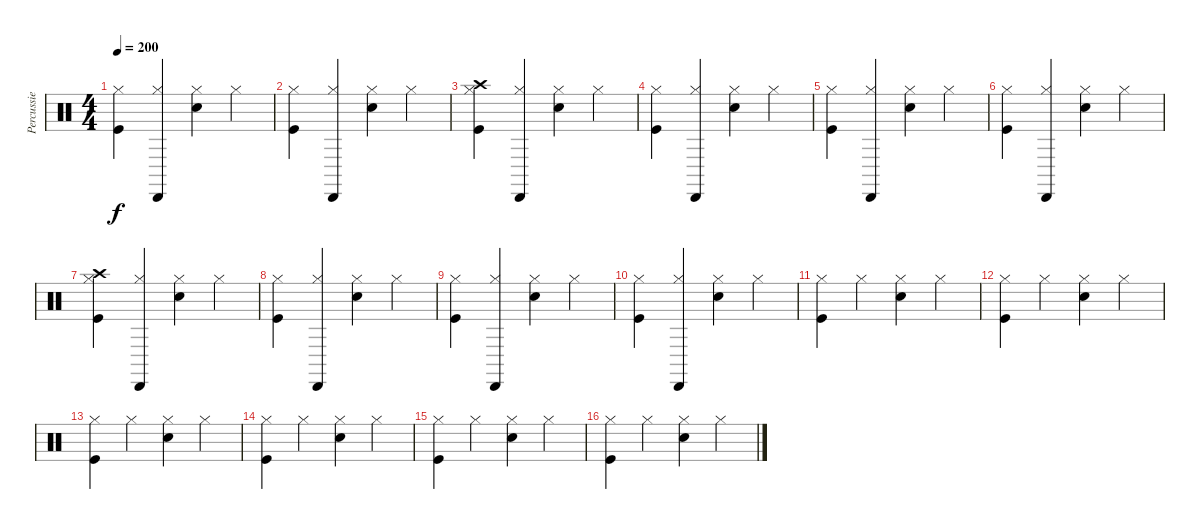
\track ("Percussie" "Percussie") {instrument percussion}
\staff {score}
\articulation defaults
\ts (4 4)
\tempo 200
\clef neutral
\ks c
("Hi-Hat (closed)" "Kick (hit)").4{dy f} ("Cabasa (hit)" "Hi-Hat (closed)").4 ("Electric Snare (hit)" "Hi-Hat (closed)").4 "Hi-Hat (closed)".4 |
("Hi-Hat (closed)" "Kick (hit)").4 ("Cabasa (hit)" "Hi-Hat (closed)").4 ("Electric Snare (hit)" "Hi-Hat (closed)").4 "Hi-Hat (closed)".4 |
("Crash high (hit)" "Hi-Hat (closed)" "Kick (hit)").4 ("Cabasa (hit)" "Hi-Hat (closed)").4 ("Electric Snare (hit)" "Hi-Hat (closed)").4 "Hi-Hat (closed)".4 |
("Hi-Hat (closed)" "Kick (hit)").4 ("Cabasa (hit)" "Hi-Hat (closed)").4 ("Electric Snare (hit)" "Hi-Hat (closed)").4 "Hi-Hat (closed)".4 |
("Hi-Hat (closed)" "Kick (hit)").4 ("Cabasa (hit)" "Hi-Hat (closed)").4 ("Electric Snare (hit)" "Hi-Hat (closed)").4 "Hi-Hat (closed)".4 |
("Hi-Hat (closed)" "Kick (hit)").4 ("Cabasa (hit)" "Hi-Hat (closed)").4 ("Electric Snare (hit)" "Hi-Hat (closed)").4 "Hi-Hat (closed)".4 |
("Crash high (hit)" "Hi-Hat (closed)" "Kick (hit)").4 ("Cabasa (hit)" "Hi-Hat (closed)").4 ("Electric Snare (hit)" "Hi-Hat (closed)").4 "Hi-Hat (closed)".4 |
("Hi-Hat (closed)" "Kick (hit)").4 ("Cabasa (hit)" "Hi-Hat (closed)").4 ("Electric Snare (hit)" "Hi-Hat (closed)").4 "Hi-Hat (closed)".4 |
("Hi-Hat (closed)" "Kick (hit)").4 ("Cabasa (hit)" "Hi-Hat (closed)").4 ("Electric Snare (hit)" "Hi-Hat (closed)").4 "Hi-Hat (closed)".4 |
("Hi-Hat (closed)" "Kick (hit)").4 ("Cabasa (hit)" "Hi-Hat (closed)").4 ("Electric Snare (hit)" "Hi-Hat (closed)").4 "Hi-Hat (closed)".4 |
("Hi-Hat (closed)" "Kick (hit)").4 "Hi-Hat (closed)".4 ("Electric Snare (hit)" "Hi-Hat (closed)").4 "Hi-Hat (closed)".4 |
("Hi-Hat (closed)" "Kick (hit)").4 "Hi-Hat (closed)".4 ("Electric Snare (hit)" "Hi-Hat (closed)").4 "Hi-Hat (closed)".4 |
("Hi-Hat (closed)" "Kick (hit)").4 "Hi-Hat (closed)".4 ("Electric Snare (hit)" "Hi-Hat (closed)").4 "Hi-Hat (closed)".4 |
("Hi-Hat (closed)" "Kick (hit)").4 "Hi-Hat (closed)".4 ("Electric Snare (hit)" "Hi-Hat (closed)").4 "Hi-Hat (closed)".4 |
("Hi-Hat (closed)" "Kick (hit)").4 "Hi-Hat (closed)".4 ("Electric Snare (hit)" "Hi-Hat (closed)").4 "Hi-Hat (closed)".4 |
("Hi-Hat (closed)" "Kick (hit)").4 "Hi-Hat (closed)".4 ("Electric Snare (hit)" "Hi-Hat (closed)").4 "Hi-Hat (closed)".4
